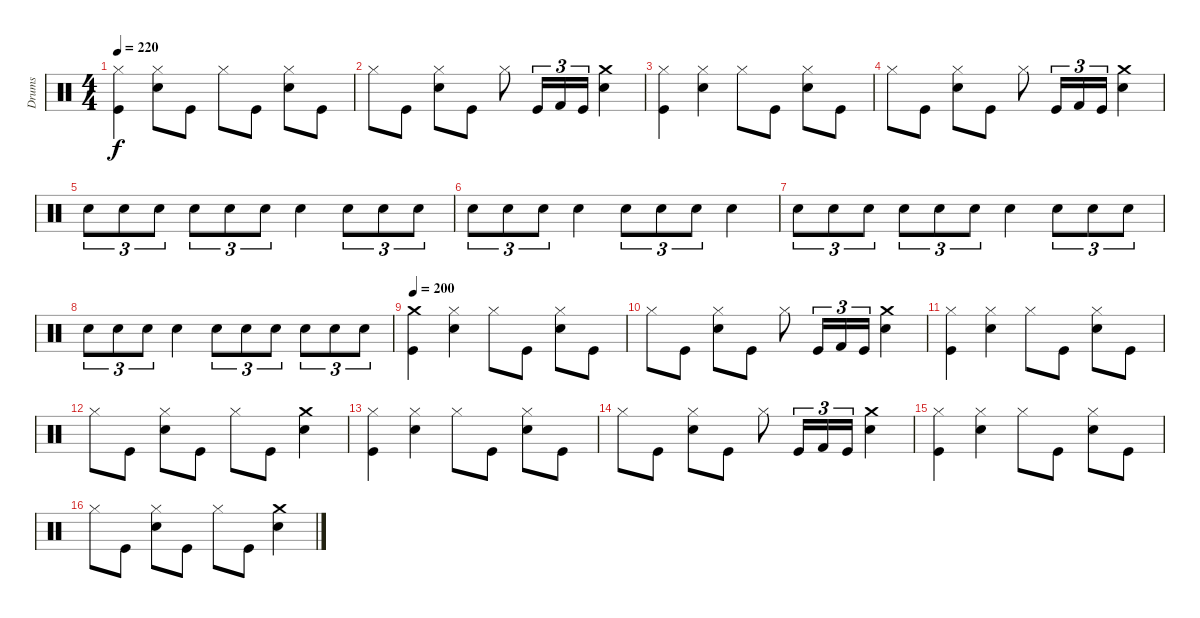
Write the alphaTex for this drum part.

\track ("Drums" "Drums") {instrument percussion}
\staff {score}
\articulation defaults
\ts (4 4)
\tempo 220
\clef neutral
\ks c
("Kick (hit)" "Hi-Hat (closed)").4{dy f} ("Snare (hit) 2" "Hi-Hat (closed)").8 "Kick (hit)".8 "Hi-Hat (closed)".8 "Kick (hit)".8 ("Hi-Hat (closed)" "Snare (hit) 2").8 "Kick (hit)".8 |
"Hi-Hat (closed)".8 "Kick (hit)".8 ("Snare (hit) 2" "Hi-Hat (closed)").8 "Kick (hit)".8 "Hi-Hat (closed)".8 "Kick (hit)".16{tu (3 2)} "Kick (hit) 2".16{tu (3 2)} "Kick (hit)".16{tu (3 2)} ("Crash medium (hit)" "Snare (hit) 2").4 |
("Hi-Hat (closed)" "Kick (hit)").4 ("Snare (hit) 2" "Hi-Hat (closed)").4 "Hi-Hat (closed)".8 "Kick (hit)".8 ("Snare (hit) 2" "Hi-Hat (closed)").8 "Kick (hit)".8 |
"Hi-Hat (closed)".8 "Kick (hit)".8 ("Snare (hit) 2" "Hi-Hat (closed)").8 "Kick (hit)".8 "Hi-Hat (closed)".8 "Kick (hit)".16{tu (3 2)} "Kick (hit) 2".16{tu (3 2)} "Kick (hit)".16{tu (3 2)} ("Crash medium (hit)" "Snare (hit) 2").4 |
"Snare (hit) 2".8{tu (3 2)} "Snare (hit) 2".8{tu (3 2)} "Snare (hit) 2".8{tu (3 2)} "Snare (hit) 2".8{tu (3 2)} "Snare (hit) 2".8{tu (3 2)} "Snare (hit) 2".8{tu (3 2)} "Snare (hit) 2".4 "Snare (hit) 2".8{tu (3 2)} "Snare (hit) 2".8{tu (3 2)} "Snare (hit) 2".8{tu (3 2)} |
"Snare (hit) 2".8{tu (3 2)} "Snare (hit) 2".8{tu (3 2)} "Snare (hit) 2".8{tu (3 2)} "Snare (hit) 2".4 "Snare (hit) 2".8{tu (3 2)} "Snare (hit) 2".8{tu (3 2)} "Snare (hit) 2".8{tu (3 2)} "Snare (hit) 2".4 |
"Snare (hit) 2".8{tu (3 2)} "Snare (hit) 2".8{tu (3 2)} "Snare (hit) 2".8{tu (3 2)} "Snare (hit) 2".8{tu (3 2)} "Snare (hit) 2".8{tu (3 2)} "Snare (hit) 2".8{tu (3 2)} "Snare (hit) 2".4 "Snare (hit) 2".8{tu (3 2)} "Snare (hit) 2".8{tu (3 2)} "Snare (hit) 2".8{tu (3 2)} |
"Snare (hit) 2".8{tu (3 2)} "Snare (hit) 2".8{tu (3 2)} "Snare (hit) 2".8{tu (3 2)} "Snare (hit) 2".4 "Snare (hit) 2".8{tu (3 2)} "Snare (hit) 2".8{tu (3 2)} "Snare (hit) 2".8{tu (3 2)} "Snare (hit) 2".8{tu (3 2)} "Snare (hit) 2".8{tu (3 2)} "Snare (hit) 2".8{tu (3 2)} |
\tempo 200
("Crash medium (hit)" "Kick (hit)").4 ("Hi-Hat (closed)" "Snare (hit) 2").4 "Hi-Hat (closed)".8 "Kick (hit)".8 ("Snare (hit) 2" "Hi-Hat (closed)").8 "Kick (hit)".8 |
"Hi-Hat (closed)".8 "Kick (hit)".8 ("Snare (hit) 2" "Hi-Hat (closed)").8 "Kick (hit)".8 "Hi-Hat (closed)".8 "Kick (hit)".16{tu (3 2)} "Kick (hit) 2".16{tu (3 2)} "Kick (hit)".16{tu (3 2)} ("Crash medium (hit)" "Snare (hit) 2").4 |
("Kick (hit)" "Hi-Hat (closed)").4 ("Hi-Hat (closed)" "Snare (hit) 2").4 "Hi-Hat (closed)".8 "Kick (hit)".8 ("Snare (hit) 2" "Hi-Hat (closed)").8 "Kick (hit)".8 |
"Hi-Hat (closed)".8 "Kick (hit)".8 ("Snare (hit) 2" "Hi-Hat (closed)").8 "Kick (hit)".8 "Hi-Hat (closed)".8 "Kick (hit)".8 ("Crash medium (hit)" "Snare (hit) 2").4 |
("Hi-Hat (closed)" "Kick (hit)").4 ("Snare (hit) 2" "Hi-Hat (closed)").4 "Hi-Hat (closed)".8 "Kick (hit)".8 ("Snare (hit) 2" "Hi-Hat (closed)").8 "Kick (hit)".8 |
"Hi-Hat (closed)".8 "Kick (hit)".8 ("Snare (hit) 2" "Hi-Hat (closed)").8 "Kick (hit)".8 "Hi-Hat (closed)".8 "Kick (hit)".16{tu (3 2)} "Kick (hit) 2".16{tu (3 2)} "Kick (hit)".16{tu (3 2)} ("Crash medium (hit)" "Snare (hit) 2").4 |
("Kick (hit)" "Hi-Hat (closed)").4 ("Snare (hit) 2" "Hi-Hat (closed)").4 "Hi-Hat (closed)".8 "Kick (hit)".8 ("Snare (hit) 2" "Hi-Hat (closed)").8 "Kick (hit)".8 |
"Hi-Hat (closed)".8 "Kick (hit)".8 ("Snare (hit) 2" "Hi-Hat (closed)").8 "Kick (hit)".8 "Hi-Hat (closed)".8 "Kick (hit)".8 ("Crash medium (hit)" "Snare (hit) 2").4
